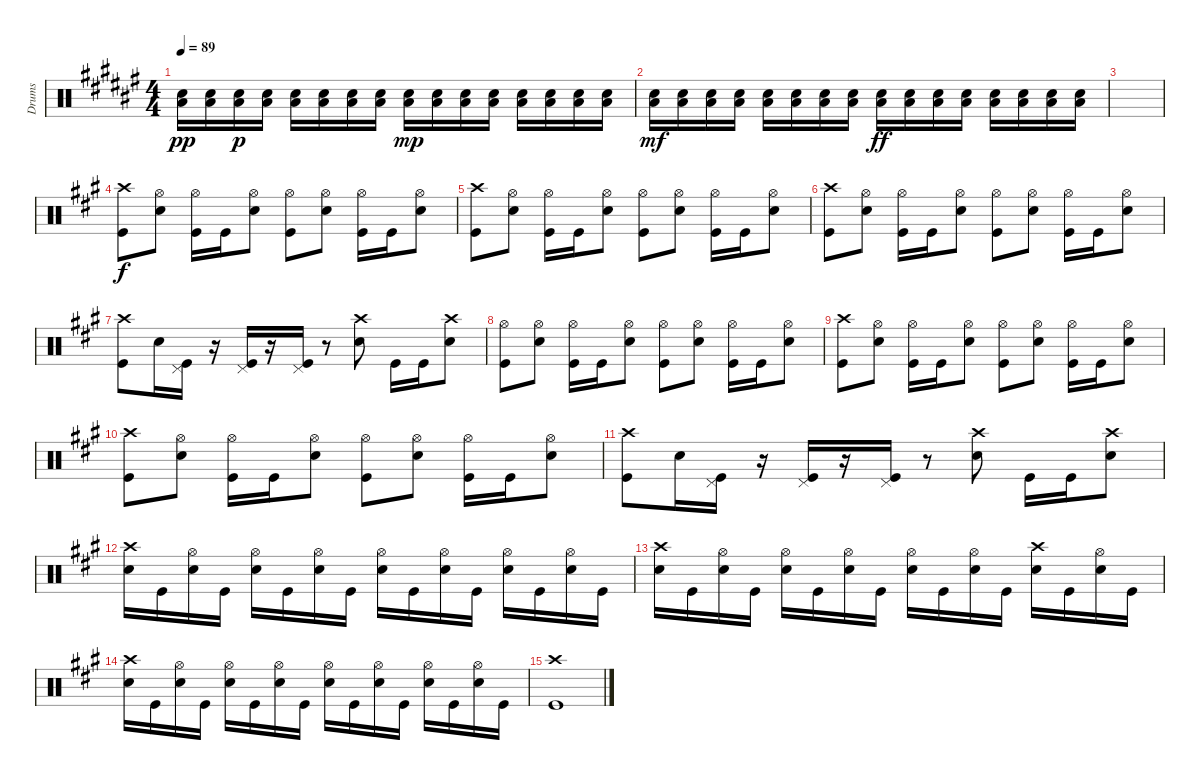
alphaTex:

\track ("Drums" "Drums") {instrument percussion}
\staff {score}
\articulation defaults
\ts (4 4)
\tempo 89
\clef neutral
\ks f#
("Snare (hit) 2" "Low Floor Tom (hit)").16{dy pp} ("Snare (hit) 2" "Low Floor Tom (hit)").16 ("Snare (hit) 2" "Low Floor Tom (hit)").16{dy p} ("Snare (hit) 2" "Low Floor Tom (hit)").16 ("Snare (hit) 2" "Low Floor Tom (hit)").16 ("Snare (hit) 2" "Low Floor Tom (hit)").16 ("Snare (hit) 2" "Low Floor Tom (hit)").16 ("Snare (hit) 2" "Low Floor Tom (hit)").16 ("Snare (hit) 2" "Low Floor Tom (hit)").16{dy mp} ("Snare (hit) 2" "Low Floor Tom (hit)").16 ("Snare (hit) 2" "Low Floor Tom (hit)").16 ("Snare (hit) 2" "Low Floor Tom (hit)").16 ("Snare (hit) 2" "Low Floor Tom (hit)").16 ("Snare (hit) 2" "Low Floor Tom (hit)").16 ("Snare (hit) 2" "Low Floor Tom (hit)").16 ("Snare (hit) 2" "Low Floor Tom (hit)").16 |
("Snare (hit) 2" "Low Floor Tom (hit)").16{dy mf} ("Snare (hit) 2" "Low Floor Tom (hit)").16 ("Snare (hit) 2" "Low Floor Tom (hit)").16 ("Snare (hit) 2" "Low Floor Tom (hit)").16 ("Snare (hit) 2" "Low Floor Tom (hit)").16 ("Snare (hit) 2" "Low Floor Tom (hit)").16 ("Snare (hit) 2" "Low Floor Tom (hit)").16 ("Snare (hit) 2" "Low Floor Tom (hit)").16 ("Snare (hit) 2" "Low Floor Tom (hit)").16{dy ff} ("Snare (hit) 2" "Low Floor Tom (hit)").16 ("Snare (hit) 2" "Low Floor Tom (hit)").16 ("Snare (hit) 2" "Low Floor Tom (hit)").16 ("Snare (hit) 2" "Low Floor Tom (hit)").16 ("Snare (hit) 2" "Low Floor Tom (hit)").16 ("Snare (hit) 2" "Low Floor Tom (hit)").16 ("Snare (hit) 2" "Low Floor Tom (hit)").16 |
|
\ks f#minor
("Crash high (hit)" "Kick (hit)").8{dy f} ("Hi-Hat (open)" "Snare (hit) 2").8 ("Hi-Hat (open)" "Kick (hit)").16 "Kick (hit)".16 ("Hi-Hat (open)" "Snare (hit) 2").8 ("Hi-Hat (open)" "Kick (hit)").8 ("Hi-Hat (open)" "Snare (hit) 2").8 ("Hi-Hat (open)" "Kick (hit)").16 "Kick (hit)".16 ("Hi-Hat (open)" "Snare (hit) 2").8 |
("Crash high (hit)" "Kick (hit)").8 ("Hi-Hat (open)" "Snare (hit) 2").8 ("Hi-Hat (open)" "Kick (hit)").16 "Kick (hit)".16 ("Hi-Hat (open)" "Snare (hit) 2").8 ("Hi-Hat (open)" "Kick (hit)").8 ("Hi-Hat (open)" "Snare (hit) 2").8 ("Hi-Hat (open)" "Kick (hit)").16 "Kick (hit)".16 ("Hi-Hat (open)" "Snare (hit) 2").8 |
("Crash high (hit)" "Kick (hit)").8 ("Hi-Hat (open)" "Snare (hit) 2").8 ("Hi-Hat (open)" "Kick (hit)").16 "Kick (hit)".16 ("Hi-Hat (open)" "Snare (hit) 2").8 ("Hi-Hat (open)" "Kick (hit)").8 ("Hi-Hat (open)" "Snare (hit) 2").8 ("Hi-Hat (open)" "Kick (hit)").16 "Kick (hit)".16 ("Hi-Hat (open)" "Snare (hit) 2").8 |
("Crash high (hit)" "Kick (hit)").8 "Snare (hit) 2".16 ("Pedal Hi-Hat (hit)" "Kick (hit)").16 r.16 ("Pedal Hi-Hat (hit)" "Kick (hit)").16 r.16 ("Pedal Hi-Hat (hit)" "Kick (hit)").16 r.8 ("Crash high (hit)" "Snare (hit) 2").8 "Kick (hit)".16 "Kick (hit)".16 ("Crash high (hit)" "Snare (hit) 2").8 |
("Hi-Hat (open)" "Kick (hit)").8 ("Hi-Hat (open)" "Snare (hit) 2").8 ("Hi-Hat (open)" "Kick (hit)").16 "Kick (hit)".16 ("Hi-Hat (open)" "Snare (hit) 2").8 ("Hi-Hat (open)" "Kick (hit)").8 ("Hi-Hat (open)" "Snare (hit) 2").8 ("Hi-Hat (open)" "Kick (hit)").16 "Kick (hit)".16 ("Hi-Hat (open)" "Snare (hit) 2").8 |
("Crash high (hit)" "Kick (hit)").8 ("Hi-Hat (open)" "Snare (hit) 2").8 ("Hi-Hat (open)" "Kick (hit)").16 "Kick (hit)".16 ("Hi-Hat (open)" "Snare (hit) 2").8 ("Hi-Hat (open)" "Kick (hit)").8 ("Hi-Hat (open)" "Snare (hit) 2").8 ("Hi-Hat (open)" "Kick (hit)").16 "Kick (hit)".16 ("Hi-Hat (open)" "Snare (hit) 2").8 |
("Crash high (hit)" "Kick (hit)").8 ("Hi-Hat (open)" "Snare (hit) 2").8 ("Hi-Hat (open)" "Kick (hit)").16 "Kick (hit)".16 ("Hi-Hat (open)" "Snare (hit) 2").8 ("Hi-Hat (open)" "Kick (hit)").8 ("Hi-Hat (open)" "Snare (hit) 2").8 ("Hi-Hat (open)" "Kick (hit)").16 "Kick (hit)".16 ("Hi-Hat (open)" "Snare (hit) 2").8 |
("Crash high (hit)" "Kick (hit)").8 "Snare (hit) 2".16 ("Pedal Hi-Hat (hit)" "Kick (hit)").16 r.16 ("Pedal Hi-Hat (hit)" "Kick (hit)").16 r.16 ("Pedal Hi-Hat (hit)" "Kick (hit)").16 r.8 ("Crash high (hit)" "Snare (hit) 2").8 "Kick (hit)".16 "Kick (hit)".16 ("Crash high (hit)" "Snare (hit) 2").8 |
("Crash high (hit)" "Snare (hit) 2").16 "Kick (hit)".16 ("Hi-Hat (open)" "Snare (hit) 2").16 "Kick (hit)".16 ("Hi-Hat (open)" "Snare (hit) 2").16 "Kick (hit)".16 ("Hi-Hat (open)" "Snare (hit) 2").16 "Kick (hit)".16 ("Hi-Hat (open)" "Snare (hit) 2").16 "Kick (hit)".16 ("Hi-Hat (open)" "Snare (hit) 2").16 "Kick (hit)".16 ("Hi-Hat (open)" "Snare (hit) 2").16 "Kick (hit)".16 ("Hi-Hat (open)" "Snare (hit) 2").16 "Kick (hit)".16 |
("Crash high (hit)" "Snare (hit) 2").16 "Kick (hit)".16 ("Hi-Hat (open)" "Snare (hit) 2").16 "Kick (hit)".16 ("Hi-Hat (open)" "Snare (hit) 2").16 "Kick (hit)".16 ("Hi-Hat (open)" "Snare (hit) 2").16 "Kick (hit)".16 ("Hi-Hat (open)" "Snare (hit) 2").16 "Kick (hit)".16 ("Hi-Hat (open)" "Snare (hit) 2").16 "Kick (hit)".16 ("Crash high (hit)" "Snare (hit) 2").16 "Kick (hit)".16 ("Hi-Hat (open)" "Snare (hit) 2").16 "Kick (hit)".16 |
("Crash high (hit)" "Snare (hit) 2").16 "Kick (hit)".16 ("Hi-Hat (open)" "Snare (hit) 2").16 "Kick (hit)".16 ("Hi-Hat (open)" "Snare (hit) 2").16 "Kick (hit)".16 ("Hi-Hat (open)" "Snare (hit) 2").16 "Kick (hit)".16 ("Hi-Hat (open)" "Snare (hit) 2").16 "Kick (hit)".16 ("Hi-Hat (open)" "Snare (hit) 2").16 "Kick (hit)".16 ("Hi-Hat (open)" "Snare (hit) 2").16 "Kick (hit)".16 ("Hi-Hat (open)" "Snare (hit) 2").16 "Kick (hit)".16 |
("Crash high (hit)" "Kick (hit)").1
